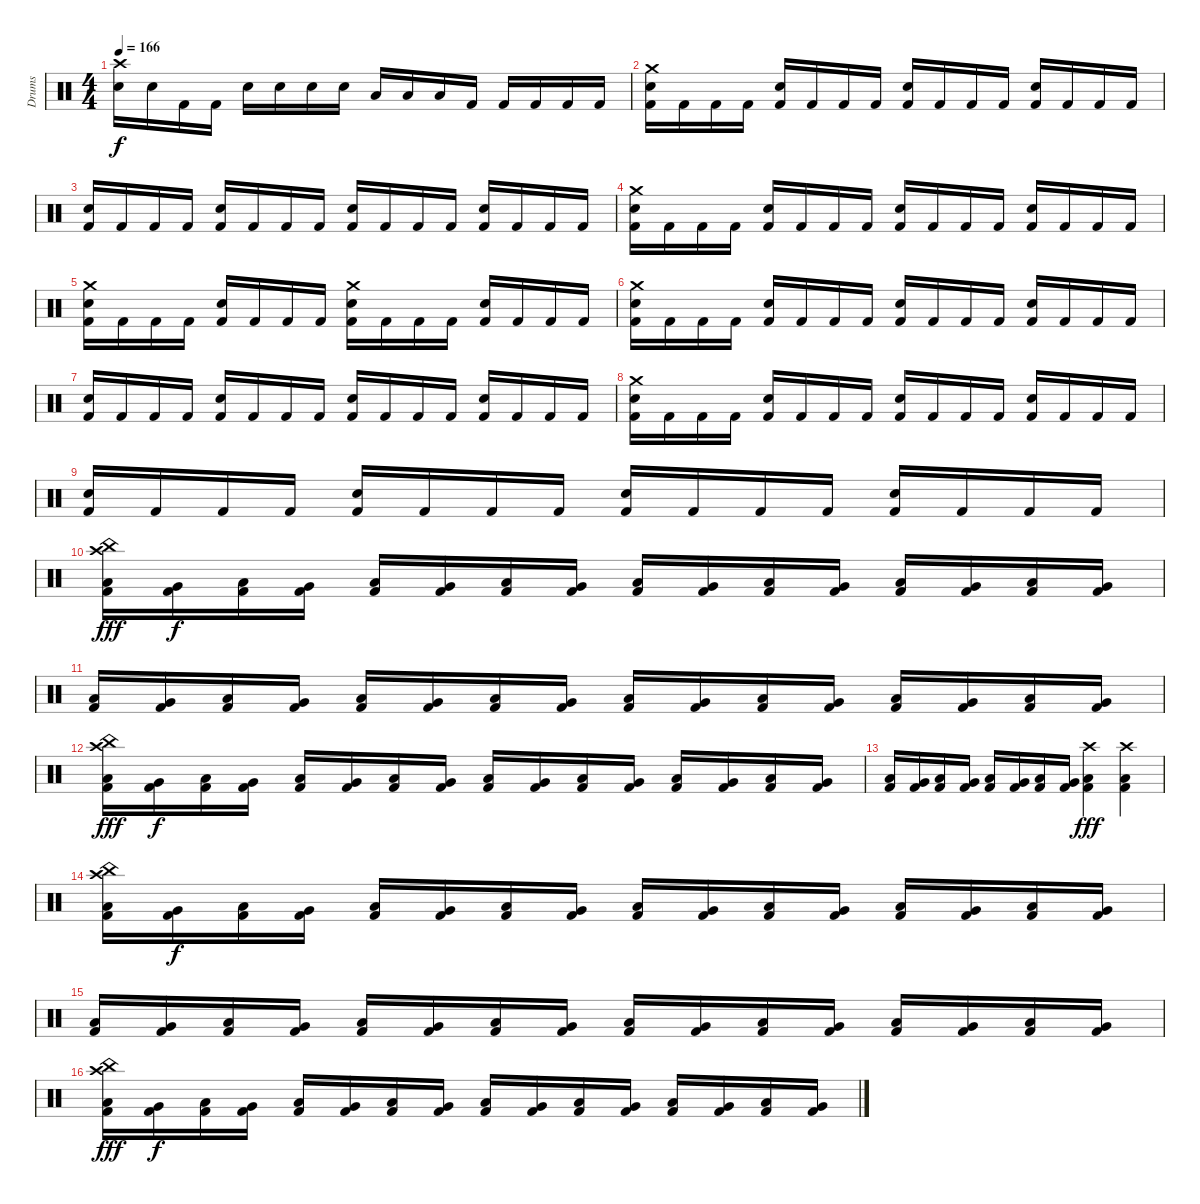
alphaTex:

\track ("Drums" "Drums") {instrument percussion}
\staff {score}
\articulation defaults
\ts (4 4)
\tempo 166
\clef neutral
\ks c
("Crash high (hit)" "Snare (hit) 2").16{dy f} "Snare (hit) 2".16 "Kick (hit) 2".16 "Kick (hit) 2".16 "Snare (hit) 2".16 "Snare (hit) 2".16 "Snare (hit) 2".16 "Snare (hit) 2".16 "Low Tom (hit)".16 "Low Tom (hit)".16 "Low Tom (hit)".16 "Kick (hit) 2".16 "Kick (hit) 2".16 "Kick (hit) 2".16 "Kick (hit) 2".16 "Kick (hit) 2".16 |
("Crash medium (hit)" "Snare (hit) 2" "Kick (hit) 2").16 "Kick (hit) 2".16 "Kick (hit) 2".16 "Kick (hit) 2".16 ("Snare (hit) 2" "Kick (hit) 2").16 "Kick (hit) 2".16 "Kick (hit) 2".16 "Kick (hit) 2".16 ("Snare (hit) 2" "Kick (hit) 2").16 "Kick (hit) 2".16 "Kick (hit) 2".16 "Kick (hit) 2".16 ("Snare (hit) 2" "Kick (hit) 2").16 "Kick (hit) 2".16 "Kick (hit) 2".16 "Kick (hit) 2".16 |
("Snare (hit) 2" "Kick (hit) 2").16 "Kick (hit) 2".16 "Kick (hit) 2".16 "Kick (hit) 2".16 ("Snare (hit) 2" "Kick (hit) 2").16 "Kick (hit) 2".16 "Kick (hit) 2".16 "Kick (hit) 2".16 ("Snare (hit) 2" "Kick (hit) 2").16 "Kick (hit) 2".16 "Kick (hit) 2".16 "Kick (hit) 2".16 ("Snare (hit) 2" "Kick (hit) 2").16 "Kick (hit) 2".16 "Kick (hit) 2".16 "Kick (hit) 2".16 |
("Crash medium (hit)" "Snare (hit) 2" "Kick (hit) 2").16 "Kick (hit) 2".16 "Kick (hit) 2".16 "Kick (hit) 2".16 ("Snare (hit) 2" "Kick (hit) 2").16 "Kick (hit) 2".16 "Kick (hit) 2".16 "Kick (hit) 2".16 ("Snare (hit) 2" "Kick (hit) 2").16 "Kick (hit) 2".16 "Kick (hit) 2".16 "Kick (hit) 2".16 ("Snare (hit) 2" "Kick (hit) 2").16 "Kick (hit) 2".16 "Kick (hit) 2".16 "Kick (hit) 2".16 |
("Crash medium (hit)" "Snare (hit) 2" "Kick (hit) 2").16 "Kick (hit) 2".16 "Kick (hit) 2".16 "Kick (hit) 2".16 ("Snare (hit) 2" "Kick (hit) 2").16 "Kick (hit) 2".16 "Kick (hit) 2".16 "Kick (hit) 2".16 ("Crash medium (hit)" "Snare (hit) 2" "Kick (hit) 2").16 "Kick (hit) 2".16 "Kick (hit) 2".16 "Kick (hit) 2".16 ("Snare (hit) 2" "Kick (hit) 2").16 "Kick (hit) 2".16 "Kick (hit) 2".16 "Kick (hit) 2".16 |
("Crash medium (hit)" "Snare (hit) 2" "Kick (hit) 2").16 "Kick (hit) 2".16 "Kick (hit) 2".16 "Kick (hit) 2".16 ("Snare (hit) 2" "Kick (hit) 2").16 "Kick (hit) 2".16 "Kick (hit) 2".16 "Kick (hit) 2".16 ("Snare (hit) 2" "Kick (hit) 2").16 "Kick (hit) 2".16 "Kick (hit) 2".16 "Kick (hit) 2".16 ("Snare (hit) 2" "Kick (hit) 2").16 "Kick (hit) 2".16 "Kick (hit) 2".16 "Kick (hit) 2".16 |
("Snare (hit) 2" "Kick (hit) 2").16 "Kick (hit) 2".16 "Kick (hit) 2".16 "Kick (hit) 2".16 ("Snare (hit) 2" "Kick (hit) 2").16 "Kick (hit) 2".16 "Kick (hit) 2".16 "Kick (hit) 2".16 ("Snare (hit) 2" "Kick (hit) 2").16 "Kick (hit) 2".16 "Kick (hit) 2".16 "Kick (hit) 2".16 ("Snare (hit) 2" "Kick (hit) 2").16 "Kick (hit) 2".16 "Kick (hit) 2".16 "Kick (hit) 2".16 |
("Crash medium (hit)" "Snare (hit) 2" "Kick (hit) 2").16 "Kick (hit) 2".16 "Kick (hit) 2".16 "Kick (hit) 2".16 ("Snare (hit) 2" "Kick (hit) 2").16 "Kick (hit) 2".16 "Kick (hit) 2".16 "Kick (hit) 2".16 ("Snare (hit) 2" "Kick (hit) 2").16 "Kick (hit) 2".16 "Kick (hit) 2".16 "Kick (hit) 2".16 ("Snare (hit) 2" "Kick (hit) 2").16 "Kick (hit) 2".16 "Kick (hit) 2".16 "Kick (hit) 2".16 |
("Snare (hit) 2" "Kick (hit) 2").16 "Kick (hit) 2".16 "Kick (hit) 2".16 "Kick (hit) 2".16 ("Snare (hit) 2" "Kick (hit) 2").16 "Kick (hit) 2".16 "Kick (hit) 2".16 "Kick (hit) 2".16 ("Snare (hit) 2" "Kick (hit) 2").16 "Kick (hit) 2".16 "Kick (hit) 2".16 "Kick (hit) 2".16 ("Snare (hit) 2" "Kick (hit) 2").16 "Kick (hit) 2".16 "Kick (hit) 2".16 "Kick (hit) 2".16 |
("China (hit)" "Crash high (hit)" "Low Tom (hit)" "Kick (hit) 2").16{dy fff} ("Very Low Tom (hit)" "Kick (hit) 2").16{dy f} ("Low Tom (hit)" "Kick (hit) 2").16 ("Very Low Tom (hit)" "Kick (hit) 2").16 ("Low Tom (hit)" "Kick (hit) 2").16 ("Very Low Tom (hit)" "Kick (hit) 2").16 ("Low Tom (hit)" "Kick (hit) 2").16 ("Very Low Tom (hit)" "Kick (hit) 2").16 ("Low Tom (hit)" "Kick (hit) 2").16 ("Very Low Tom (hit)" "Kick (hit) 2").16 ("Low Tom (hit)" "Kick (hit) 2").16 ("Very Low Tom (hit)" "Kick (hit) 2").16 ("Low Tom (hit)" "Kick (hit) 2").16 ("Very Low Tom (hit)" "Kick (hit) 2").16 ("Low Tom (hit)" "Kick (hit) 2").16 ("Very Low Tom (hit)" "Kick (hit) 2").16 |
("Low Tom (hit)" "Kick (hit) 2").16 ("Very Low Tom (hit)" "Kick (hit) 2").16 ("Low Tom (hit)" "Kick (hit) 2").16 ("Very Low Tom (hit)" "Kick (hit) 2").16 ("Low Tom (hit)" "Kick (hit) 2").16 ("Very Low Tom (hit)" "Kick (hit) 2").16 ("Low Tom (hit)" "Kick (hit) 2").16 ("Very Low Tom (hit)" "Kick (hit) 2").16 ("Low Tom (hit)" "Kick (hit) 2").16 ("Very Low Tom (hit)" "Kick (hit) 2").16 ("Low Tom (hit)" "Kick (hit) 2").16 ("Very Low Tom (hit)" "Kick (hit) 2").16 ("Low Tom (hit)" "Kick (hit) 2").16 ("Very Low Tom (hit)" "Kick (hit) 2").16 ("Low Tom (hit)" "Kick (hit) 2").16 ("Very Low Tom (hit)" "Kick (hit) 2").16 |
("China (hit)" "Crash high (hit)" "Low Tom (hit)" "Kick (hit) 2").16{dy fff} ("Very Low Tom (hit)" "Kick (hit) 2").16{dy f} ("Low Tom (hit)" "Kick (hit) 2").16 ("Very Low Tom (hit)" "Kick (hit) 2").16 ("Low Tom (hit)" "Kick (hit) 2").16 ("Very Low Tom (hit)" "Kick (hit) 2").16 ("Low Tom (hit)" "Kick (hit) 2").16 ("Very Low Tom (hit)" "Kick (hit) 2").16 ("Low Tom (hit)" "Kick (hit) 2").16 ("Very Low Tom (hit)" "Kick (hit) 2").16 ("Low Tom (hit)" "Kick (hit) 2").16 ("Very Low Tom (hit)" "Kick (hit) 2").16 ("Low Tom (hit)" "Kick (hit) 2").16 ("Very Low Tom (hit)" "Kick (hit) 2").16 ("Low Tom (hit)" "Kick (hit) 2").16 ("Very Low Tom (hit)" "Kick (hit) 2").16 |
("Low Tom (hit)" "Kick (hit) 2").16 ("Very Low Tom (hit)" "Kick (hit) 2").16 ("Low Tom (hit)" "Kick (hit) 2").16 ("Very Low Tom (hit)" "Kick (hit) 2").16 ("Low Tom (hit)" "Kick (hit) 2").16 ("Very Low Tom (hit)" "Kick (hit) 2").16 ("Low Tom (hit)" "Kick (hit) 2").16 ("Very Low Tom (hit)" "Kick (hit) 2").16 ("Crash high (hit)" "Low Floor Tom (hit)" "Kick (hit) 2").4{dy fff} ("Crash high (hit)" "Low Floor Tom (hit)" "Kick (hit) 2").4 |
("China (hit)" "Crash high (hit)" "Low Tom (hit)" "Kick (hit) 2").16 ("Very Low Tom (hit)" "Kick (hit) 2").16{dy f} ("Low Tom (hit)" "Kick (hit) 2").16 ("Very Low Tom (hit)" "Kick (hit) 2").16 ("Low Tom (hit)" "Kick (hit) 2").16 ("Very Low Tom (hit)" "Kick (hit) 2").16 ("Low Tom (hit)" "Kick (hit) 2").16 ("Very Low Tom (hit)" "Kick (hit) 2").16 ("Low Tom (hit)" "Kick (hit) 2").16 ("Very Low Tom (hit)" "Kick (hit) 2").16 ("Low Tom (hit)" "Kick (hit) 2").16 ("Very Low Tom (hit)" "Kick (hit) 2").16 ("Low Tom (hit)" "Kick (hit) 2").16 ("Very Low Tom (hit)" "Kick (hit) 2").16 ("Low Tom (hit)" "Kick (hit) 2").16 ("Very Low Tom (hit)" "Kick (hit) 2").16 |
("Low Tom (hit)" "Kick (hit) 2").16 ("Very Low Tom (hit)" "Kick (hit) 2").16 ("Low Tom (hit)" "Kick (hit) 2").16 ("Very Low Tom (hit)" "Kick (hit) 2").16 ("Low Tom (hit)" "Kick (hit) 2").16 ("Very Low Tom (hit)" "Kick (hit) 2").16 ("Low Tom (hit)" "Kick (hit) 2").16 ("Very Low Tom (hit)" "Kick (hit) 2").16 ("Low Tom (hit)" "Kick (hit) 2").16 ("Very Low Tom (hit)" "Kick (hit) 2").16 ("Low Tom (hit)" "Kick (hit) 2").16 ("Very Low Tom (hit)" "Kick (hit) 2").16 ("Low Tom (hit)" "Kick (hit) 2").16 ("Very Low Tom (hit)" "Kick (hit) 2").16 ("Low Tom (hit)" "Kick (hit) 2").16 ("Very Low Tom (hit)" "Kick (hit) 2").16 |
("China (hit)" "Crash high (hit)" "Low Tom (hit)" "Kick (hit) 2").16{dy fff} ("Very Low Tom (hit)" "Kick (hit) 2").16{dy f} ("Low Tom (hit)" "Kick (hit) 2").16 ("Very Low Tom (hit)" "Kick (hit) 2").16 ("Low Tom (hit)" "Kick (hit) 2").16 ("Very Low Tom (hit)" "Kick (hit) 2").16 ("Low Tom (hit)" "Kick (hit) 2").16 ("Very Low Tom (hit)" "Kick (hit) 2").16 ("Low Tom (hit)" "Kick (hit) 2").16 ("Very Low Tom (hit)" "Kick (hit) 2").16 ("Low Tom (hit)" "Kick (hit) 2").16 ("Very Low Tom (hit)" "Kick (hit) 2").16 ("Low Tom (hit)" "Kick (hit) 2").16 ("Very Low Tom (hit)" "Kick (hit) 2").16 ("Low Tom (hit)" "Kick (hit) 2").16 ("Very Low Tom (hit)" "Kick (hit) 2").16
